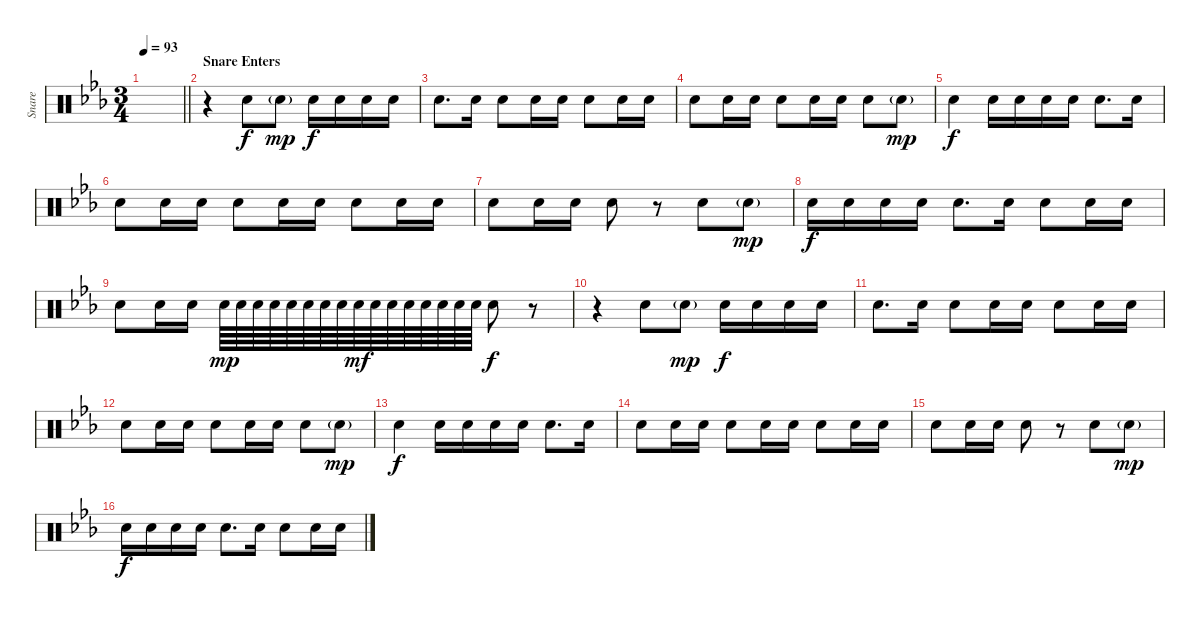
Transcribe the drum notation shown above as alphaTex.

\track ("Snare" "Snare") {instrument percussion}
\staff {score}
\articulation defaults
\ts (3 4)
\tempo 93
\clef neutral
\barLineRight lightlight
\ks cminor
|
\section ("" "Snare Enters")
r.4{volume 10 balance 16} "Electric Snare (hit)".8 "Electric Snare (hit)"{g}.8{dy mp} "Electric Snare (hit)".16{dy f} "Electric Snare (hit)".16 "Electric Snare (hit)".16 "Electric Snare (hit)".16 |
"Electric Snare (hit)".8{d} "Electric Snare (hit)".16 "Electric Snare (hit)".8 "Electric Snare (hit)".16 "Electric Snare (hit)".16 "Electric Snare (hit)".8 "Electric Snare (hit)".16 "Electric Snare (hit)".16 |
"Electric Snare (hit)".8 "Electric Snare (hit)".16 "Electric Snare (hit)".16 "Electric Snare (hit)".8 "Electric Snare (hit)".16 "Electric Snare (hit)".16 "Electric Snare (hit)".8 "Electric Snare (hit)"{g}.8{dy mp} |
"Electric Snare (hit)".4{dy f} "Electric Snare (hit)".16 "Electric Snare (hit)".16 "Electric Snare (hit)".16 "Electric Snare (hit)".16 "Electric Snare (hit)".8{d} "Electric Snare (hit)".16 |
"Electric Snare (hit)".8 "Electric Snare (hit)".16 "Electric Snare (hit)".16 "Electric Snare (hit)".8 "Electric Snare (hit)".16 "Electric Snare (hit)".16 "Electric Snare (hit)".8 "Electric Snare (hit)".16 "Electric Snare (hit)".16 |
"Electric Snare (hit)".8 "Electric Snare (hit)".16 "Electric Snare (hit)".16 "Electric Snare (hit)".8 r.8 "Electric Snare (hit)".8 "Electric Snare (hit)"{g}.8{dy mp} |
"Electric Snare (hit)".16{dy f} "Electric Snare (hit)".16 "Electric Snare (hit)".16 "Electric Snare (hit)".16 "Electric Snare (hit)".8{d} "Electric Snare (hit)".16 "Electric Snare (hit)".8 "Electric Snare (hit)".16 "Electric Snare (hit)".16 |
"Electric Snare (hit)".8 "Electric Snare (hit)".16 "Electric Snare (hit)".16 "Electric Snare (hit)".64{dy mp} "Electric Snare (hit)".64 "Electric Snare (hit)".64 "Electric Snare (hit)".64 "Electric Snare (hit)".64 "Electric Snare (hit)".64 "Electric Snare (hit)".64 "Electric Snare (hit)".64 "Electric Snare (hit)".64{dy mf} "Electric Snare (hit)".64 "Electric Snare (hit)".64 "Electric Snare (hit)".64 "Electric Snare (hit)".64 "Electric Snare (hit)".64 "Electric Snare (hit)".64 "Electric Snare (hit)".64 "Electric Snare (hit)".8{dy f} r.8 |
r.4 "Electric Snare (hit)".8 "Electric Snare (hit)"{g}.8{dy mp} "Electric Snare (hit)".16{dy f} "Electric Snare (hit)".16 "Electric Snare (hit)".16 "Electric Snare (hit)".16 |
"Electric Snare (hit)".8{d} "Electric Snare (hit)".16 "Electric Snare (hit)".8 "Electric Snare (hit)".16 "Electric Snare (hit)".16 "Electric Snare (hit)".8 "Electric Snare (hit)".16 "Electric Snare (hit)".16 |
"Electric Snare (hit)".8 "Electric Snare (hit)".16 "Electric Snare (hit)".16 "Electric Snare (hit)".8 "Electric Snare (hit)".16 "Electric Snare (hit)".16 "Electric Snare (hit)".8 "Electric Snare (hit)"{g}.8{dy mp} |
"Electric Snare (hit)".4{dy f} "Electric Snare (hit)".16 "Electric Snare (hit)".16 "Electric Snare (hit)".16 "Electric Snare (hit)".16 "Electric Snare (hit)".8{d} "Electric Snare (hit)".16 |
"Electric Snare (hit)".8 "Electric Snare (hit)".16 "Electric Snare (hit)".16 "Electric Snare (hit)".8 "Electric Snare (hit)".16 "Electric Snare (hit)".16 "Electric Snare (hit)".8 "Electric Snare (hit)".16 "Electric Snare (hit)".16 |
"Electric Snare (hit)".8 "Electric Snare (hit)".16 "Electric Snare (hit)".16 "Electric Snare (hit)".8 r.8 "Electric Snare (hit)".8 "Electric Snare (hit)"{g}.8{dy mp} |
"Electric Snare (hit)".16{dy f} "Electric Snare (hit)".16 "Electric Snare (hit)".16 "Electric Snare (hit)".16 "Electric Snare (hit)".8{d} "Electric Snare (hit)".16 "Electric Snare (hit)".8 "Electric Snare (hit)".16 "Electric Snare (hit)".16
